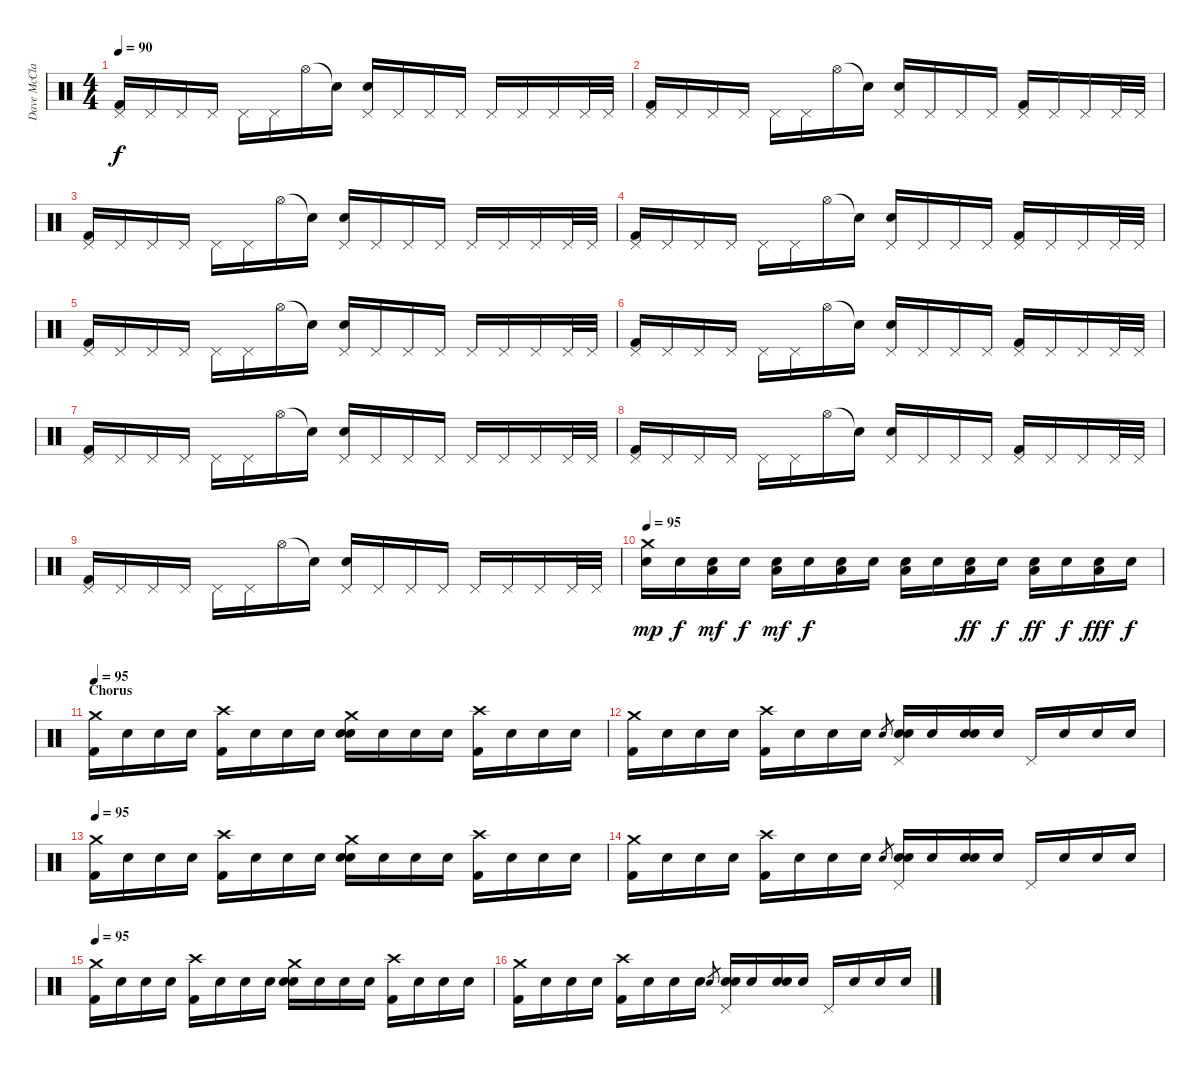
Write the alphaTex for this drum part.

\track ("Dave McClain - Drums" "Dave McCla") {instrument percussion}
\staff {score}
\articulation defaults
\ts (4 4)
\tempo 90
\clef neutral
\ks c
("Pedal Hi-Hat (hit)" "Kick (hit) 2").16{dy f} "Pedal Hi-Hat (hit)".16 "Pedal Hi-Hat (hit)".16 "Pedal Hi-Hat (hit)".16 "Pedal Hi-Hat (hit)".16 "Pedal Hi-Hat (hit)".16 "Hi-Hat (open)".16 "Snare (hit)"{t}.16 ("Pedal Hi-Hat (hit)" "Electric Snare (hit)").16 "Pedal Hi-Hat (hit)".16 "Pedal Hi-Hat (hit)".16 "Pedal Hi-Hat (hit)".16 "Pedal Hi-Hat (hit)".16 "Pedal Hi-Hat (hit)".16 "Pedal Hi-Hat (hit)".16 "Pedal Hi-Hat (hit)".32 "Pedal Hi-Hat (hit)".32 |
("Pedal Hi-Hat (hit)" "Kick (hit) 2").16 "Pedal Hi-Hat (hit)".16 "Pedal Hi-Hat (hit)".16 "Pedal Hi-Hat (hit)".16 "Pedal Hi-Hat (hit)".16 "Pedal Hi-Hat (hit)".16 "Hi-Hat (open)".16 "Snare (hit)"{t}.16 ("Pedal Hi-Hat (hit)" "Electric Snare (hit)").16 "Pedal Hi-Hat (hit)".16 "Pedal Hi-Hat (hit)".16 "Pedal Hi-Hat (hit)".16 ("Pedal Hi-Hat (hit)" "Kick (hit) 2").16 "Pedal Hi-Hat (hit)".16 "Pedal Hi-Hat (hit)".16 "Pedal Hi-Hat (hit)".32 "Pedal Hi-Hat (hit)".32 |
("Pedal Hi-Hat (hit)" "Kick (hit) 2").16 "Pedal Hi-Hat (hit)".16 "Pedal Hi-Hat (hit)".16 "Pedal Hi-Hat (hit)".16 "Pedal Hi-Hat (hit)".16 "Pedal Hi-Hat (hit)".16 "Hi-Hat (open)".16 "Snare (hit)"{t}.16 ("Pedal Hi-Hat (hit)" "Electric Snare (hit)").16 "Pedal Hi-Hat (hit)".16 "Pedal Hi-Hat (hit)".16 "Pedal Hi-Hat (hit)".16 "Pedal Hi-Hat (hit)".16 "Pedal Hi-Hat (hit)".16 "Pedal Hi-Hat (hit)".16 "Pedal Hi-Hat (hit)".32 "Pedal Hi-Hat (hit)".32 |
("Pedal Hi-Hat (hit)" "Kick (hit) 2").16 "Pedal Hi-Hat (hit)".16 "Pedal Hi-Hat (hit)".16 "Pedal Hi-Hat (hit)".16 "Pedal Hi-Hat (hit)".16 "Pedal Hi-Hat (hit)".16 "Hi-Hat (open)".16 "Snare (hit)"{t}.16 ("Pedal Hi-Hat (hit)" "Electric Snare (hit)").16 "Pedal Hi-Hat (hit)".16 "Pedal Hi-Hat (hit)".16 "Pedal Hi-Hat (hit)".16 ("Pedal Hi-Hat (hit)" "Kick (hit) 2").16 "Pedal Hi-Hat (hit)".16 "Pedal Hi-Hat (hit)".16 "Pedal Hi-Hat (hit)".32 "Pedal Hi-Hat (hit)".32 |
("Pedal Hi-Hat (hit)" "Kick (hit) 2").16 "Pedal Hi-Hat (hit)".16 "Pedal Hi-Hat (hit)".16 "Pedal Hi-Hat (hit)".16 "Pedal Hi-Hat (hit)".16 "Pedal Hi-Hat (hit)".16 "Hi-Hat (open)".16 "Snare (hit)"{t}.16 ("Pedal Hi-Hat (hit)" "Electric Snare (hit)").16 "Pedal Hi-Hat (hit)".16 "Pedal Hi-Hat (hit)".16 "Pedal Hi-Hat (hit)".16 "Pedal Hi-Hat (hit)".16 "Pedal Hi-Hat (hit)".16 "Pedal Hi-Hat (hit)".16 "Pedal Hi-Hat (hit)".32 "Pedal Hi-Hat (hit)".32 |
("Pedal Hi-Hat (hit)" "Kick (hit) 2").16 "Pedal Hi-Hat (hit)".16 "Pedal Hi-Hat (hit)".16 "Pedal Hi-Hat (hit)".16 "Pedal Hi-Hat (hit)".16 "Pedal Hi-Hat (hit)".16 "Hi-Hat (open)".16 "Snare (hit)"{t}.16 ("Pedal Hi-Hat (hit)" "Electric Snare (hit)").16 "Pedal Hi-Hat (hit)".16 "Pedal Hi-Hat (hit)".16 "Pedal Hi-Hat (hit)".16 ("Pedal Hi-Hat (hit)" "Kick (hit) 2").16 "Pedal Hi-Hat (hit)".16 "Pedal Hi-Hat (hit)".16 "Pedal Hi-Hat (hit)".32 "Pedal Hi-Hat (hit)".32 |
("Pedal Hi-Hat (hit)" "Kick (hit) 2").16 "Pedal Hi-Hat (hit)".16 "Pedal Hi-Hat (hit)".16 "Pedal Hi-Hat (hit)".16 "Pedal Hi-Hat (hit)".16 "Pedal Hi-Hat (hit)".16 "Hi-Hat (open)".16 "Snare (hit)"{t}.16 ("Pedal Hi-Hat (hit)" "Electric Snare (hit)").16 "Pedal Hi-Hat (hit)".16 "Pedal Hi-Hat (hit)".16 "Pedal Hi-Hat (hit)".16 "Pedal Hi-Hat (hit)".16 "Pedal Hi-Hat (hit)".16 "Pedal Hi-Hat (hit)".16 "Pedal Hi-Hat (hit)".32 "Pedal Hi-Hat (hit)".32 |
("Pedal Hi-Hat (hit)" "Kick (hit) 2").16 "Pedal Hi-Hat (hit)".16 "Pedal Hi-Hat (hit)".16 "Pedal Hi-Hat (hit)".16 "Pedal Hi-Hat (hit)".16 "Pedal Hi-Hat (hit)".16 "Hi-Hat (open)".16 "Snare (hit)"{t}.16 ("Pedal Hi-Hat (hit)" "Electric Snare (hit)").16 "Pedal Hi-Hat (hit)".16 "Pedal Hi-Hat (hit)".16 "Pedal Hi-Hat (hit)".16 ("Pedal Hi-Hat (hit)" "Kick (hit) 2").16 "Pedal Hi-Hat (hit)".16 "Pedal Hi-Hat (hit)".16 "Pedal Hi-Hat (hit)".32 "Pedal Hi-Hat (hit)".32 |
("Pedal Hi-Hat (hit)" "Kick (hit) 2").16 "Pedal Hi-Hat (hit)".16 "Pedal Hi-Hat (hit)".16 "Pedal Hi-Hat (hit)".16 "Pedal Hi-Hat (hit)".16 "Pedal Hi-Hat (hit)".16 "Hi-Hat (open)".16 "Snare (hit)"{t}.16 ("Pedal Hi-Hat (hit)" "Electric Snare (hit)").16 "Pedal Hi-Hat (hit)".16 "Pedal Hi-Hat (hit)".16 "Pedal Hi-Hat (hit)".16 "Pedal Hi-Hat (hit)".16 "Pedal Hi-Hat (hit)".16 "Pedal Hi-Hat (hit)".16 "Pedal Hi-Hat (hit)".32 "Pedal Hi-Hat (hit)".32 |
\tempo 95
("Crash medium (hit)" "Snare (hit) 2").16{dy mp} "Snare (hit)".16{dy f} ("Low Floor Tom (hit)" "Snare (hit) 2").16{dy mf} "Snare (hit)".16{dy f} ("Low Floor Tom (hit)" "Snare (hit) 2").16{dy mf} "Snare (hit)".16{dy f} ("Low Floor Tom (hit)" "Snare (hit) 2").16 "Snare (hit)".16 ("Low Floor Tom (hit)" "Snare (hit) 2").16 "Snare (hit)".16 ("Low Floor Tom (hit)" "Snare (hit) 2").16{dy ff} "Snare (hit)".16{dy f} ("Low Floor Tom (hit)" "Snare (hit) 2").16{dy ff} "Snare (hit)".16{dy f} ("Low Floor Tom (hit)" "Snare (hit) 2").16{dy fff} "Snare (hit)".16{dy f} |
\section ("" "Chorus")
\tempo 95
("Crash medium (hit)" "Kick (hit) 2").16{volume 16 balance 8} "Snare (hit)".16 "Snare (hit)".16 "Snare (hit)".16 ("Crash high (hit)" "Kick (hit) 2").16 "Snare (hit)".16 "Snare (hit)".16 "Snare (hit)".16 ("Crash medium (hit)" "Electric Snare (hit)" "Snare (hit) 2").16 "Snare (hit)".16 "Snare (hit)".16 "Snare (hit)".16 ("Crash high (hit)" "Kick (hit) 2").16 "Snare (hit)".16 "Snare (hit)".16 "Snare (hit)".16 |
("Crash medium (hit)" "Kick (hit) 2").16 "Snare (hit)".16 "Snare (hit)".16 "Snare (hit)".16 ("Crash high (hit)" "Kick (hit) 2").16 "Snare (hit)".16 "Snare (hit)".16 "Snare (hit)".16 "Electric Snare (hit)".8{gr} ("Pedal Hi-Hat (hit)" "Electric Snare (hit)" "Snare (hit) 2").16 "Snare (hit)".16 ("Electric Snare (hit)" "Snare (hit) 2").16 "Snare (hit)".16 "Pedal Hi-Hat (hit)".16 "Snare (hit)".16 "Snare (hit)".16 "Snare (hit)".16 |
\tempo 95
("Crash medium (hit)" "Kick (hit) 2").16{volume 16 balance 8} "Snare (hit)".16 "Snare (hit)".16 "Snare (hit)".16 ("Crash high (hit)" "Kick (hit) 2").16 "Snare (hit)".16 "Snare (hit)".16 "Snare (hit)".16 ("Crash medium (hit)" "Electric Snare (hit)" "Snare (hit) 2").16 "Snare (hit)".16 "Snare (hit)".16 "Snare (hit)".16 ("Crash high (hit)" "Kick (hit) 2").16 "Snare (hit)".16 "Snare (hit)".16 "Snare (hit)".16 |
("Crash medium (hit)" "Kick (hit) 2").16 "Snare (hit)".16 "Snare (hit)".16 "Snare (hit)".16 ("Crash high (hit)" "Kick (hit) 2").16 "Snare (hit)".16 "Snare (hit)".16 "Snare (hit)".16 "Electric Snare (hit)".8{gr} ("Pedal Hi-Hat (hit)" "Electric Snare (hit)" "Snare (hit) 2").16 "Snare (hit)".16 ("Electric Snare (hit)" "Snare (hit) 2").16 "Snare (hit)".16 "Pedal Hi-Hat (hit)".16 "Snare (hit)".16 "Snare (hit)".16 "Snare (hit)".16 |
\tempo 95
("Crash medium (hit)" "Kick (hit) 2").16{volume 16 balance 8} "Snare (hit)".16 "Snare (hit)".16 "Snare (hit)".16 ("Crash high (hit)" "Kick (hit) 2").16 "Snare (hit)".16 "Snare (hit)".16 "Snare (hit)".16 ("Crash medium (hit)" "Electric Snare (hit)" "Snare (hit) 2").16 "Snare (hit)".16 "Snare (hit)".16 "Snare (hit)".16 ("Crash high (hit)" "Kick (hit) 2").16 "Snare (hit)".16 "Snare (hit)".16 "Snare (hit)".16 |
("Crash medium (hit)" "Kick (hit) 2").16 "Snare (hit)".16 "Snare (hit)".16 "Snare (hit)".16 ("Crash high (hit)" "Kick (hit) 2").16 "Snare (hit)".16 "Snare (hit)".16 "Snare (hit)".16 "Electric Snare (hit)".8{gr} ("Pedal Hi-Hat (hit)" "Electric Snare (hit)" "Snare (hit) 2").16 "Snare (hit)".16 ("Electric Snare (hit)" "Snare (hit) 2").16 "Snare (hit)".16 "Pedal Hi-Hat (hit)".16 "Snare (hit)".16 "Snare (hit)".16 "Snare (hit)".16
